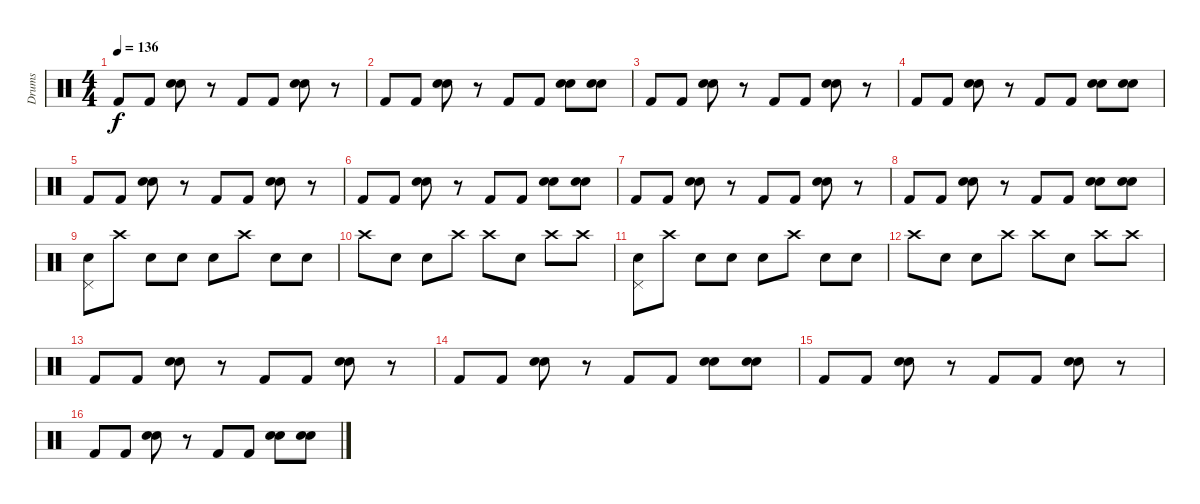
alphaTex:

\track ("Drums" "Drums") {instrument percussion}
\staff {score}
\articulation defaults
\ts (4 4)
\tempo 136
\clef neutral
\ks c "Kick (hit) 2".8{dy f} "Kick (hit) 2".8
("Snare (hit) 2" "Electric Snare (hit)").8 r.8 "Kick (hit) 2".8 "Kick (hit) 2".8 ("Snare (hit) 2" "Electric Snare (hit)").8 r.8 |
"Kick (hit) 2".8 "Kick (hit) 2".8 ("Snare (hit) 2" "Electric Snare (hit)").8 r.8 "Kick (hit) 2".8 "Kick (hit) 2".8 ("Snare (hit) 2" "Electric Snare (hit)").8 ("Snare (hit) 2" "Electric Snare (hit)").8 |
"Kick (hit) 2".8 "Kick (hit) 2".8 ("Snare (hit) 2" "Electric Snare (hit)").8 r.8 "Kick (hit) 2".8 "Kick (hit) 2".8 ("Snare (hit) 2" "Electric Snare (hit)").8 r.8 |
"Kick (hit) 2".8 "Kick (hit) 2".8 ("Snare (hit) 2" "Electric Snare (hit)").8 r.8 "Kick (hit) 2".8 "Kick (hit) 2".8 ("Snare (hit) 2" "Electric Snare (hit)").8 ("Snare (hit) 2" "Electric Snare (hit)").8 |
"Kick (hit) 2".8 "Kick (hit) 2".8 ("Snare (hit) 2" "Electric Snare (hit)").8 r.8 "Kick (hit) 2".8 "Kick (hit) 2".8 ("Snare (hit) 2" "Electric Snare (hit)").8 r.8 |
"Kick (hit) 2".8 "Kick (hit) 2".8 ("Snare (hit) 2" "Electric Snare (hit)").8 r.8 "Kick (hit) 2".8 "Kick (hit) 2".8 ("Snare (hit) 2" "Electric Snare (hit)").8 ("Snare (hit) 2" "Electric Snare (hit)").8 |
"Kick (hit) 2".8 "Kick (hit) 2".8 ("Snare (hit) 2" "Electric Snare (hit)").8 r.8 "Kick (hit) 2".8 "Kick (hit) 2".8 ("Snare (hit) 2" "Electric Snare (hit)").8 r.8 |
"Kick (hit) 2".8 "Kick (hit) 2".8 ("Snare (hit) 2" "Electric Snare (hit)").8 r.8 "Kick (hit) 2".8 "Kick (hit) 2".8 ("Snare (hit) 2" "Electric Snare (hit)").8 ("Snare (hit) 2" "Electric Snare (hit)").8 |
("Snare (hit) 2" "Pedal Hi-Hat (hit)").8 "Crash high (hit)".8 "Electric Snare (hit)".8 "Snare (hit) 2".8 "Snare (hit) 2".8 "Crash high (hit)".8 "Electric Snare (hit)".8 "Snare (hit) 2".8 |
"Crash high (hit)".8 "Electric Snare (hit)".8 "Snare (hit) 2".8 "Crash high (hit)".8 "Crash high (hit)".8 "Snare (hit) 2".8 "Crash high (hit)".8 "Crash high (hit)".8 |
("Snare (hit) 2" "Pedal Hi-Hat (hit)").8 "Crash high (hit)".8 "Electric Snare (hit)".8 "Snare (hit) 2".8 "Snare (hit) 2".8 "Crash high (hit)".8 "Electric Snare (hit)".8 "Snare (hit) 2".8 |
"Crash high (hit)".8 "Electric Snare (hit)".8 "Snare (hit) 2".8 "Crash high (hit)".8 "Crash high (hit)".8 "Snare (hit) 2".8 "Crash high (hit)".8 "Crash high (hit)".8 |
"Kick (hit) 2".8 "Kick (hit) 2".8 ("Snare (hit) 2" "Electric Snare (hit)").8 r.8 "Kick (hit) 2".8 "Kick (hit) 2".8 ("Snare (hit) 2" "Electric Snare (hit)").8 r.8 |
"Kick (hit) 2".8 "Kick (hit) 2".8 ("Snare (hit) 2" "Electric Snare (hit)").8 r.8 "Kick (hit) 2".8 "Kick (hit) 2".8 ("Snare (hit) 2" "Electric Snare (hit)").8 ("Snare (hit) 2" "Electric Snare (hit)").8 |
"Kick (hit) 2".8 "Kick (hit) 2".8 ("Snare (hit) 2" "Electric Snare (hit)").8 r.8 "Kick (hit) 2".8 "Kick (hit) 2".8 ("Snare (hit) 2" "Electric Snare (hit)").8 r.8 |
"Kick (hit) 2".8 "Kick (hit) 2".8 ("Snare (hit) 2" "Electric Snare (hit)").8 r.8 "Kick (hit) 2".8 "Kick (hit) 2".8 ("Snare (hit) 2" "Electric Snare (hit)").8 ("Snare (hit) 2" "Electric Snare (hit)").8
